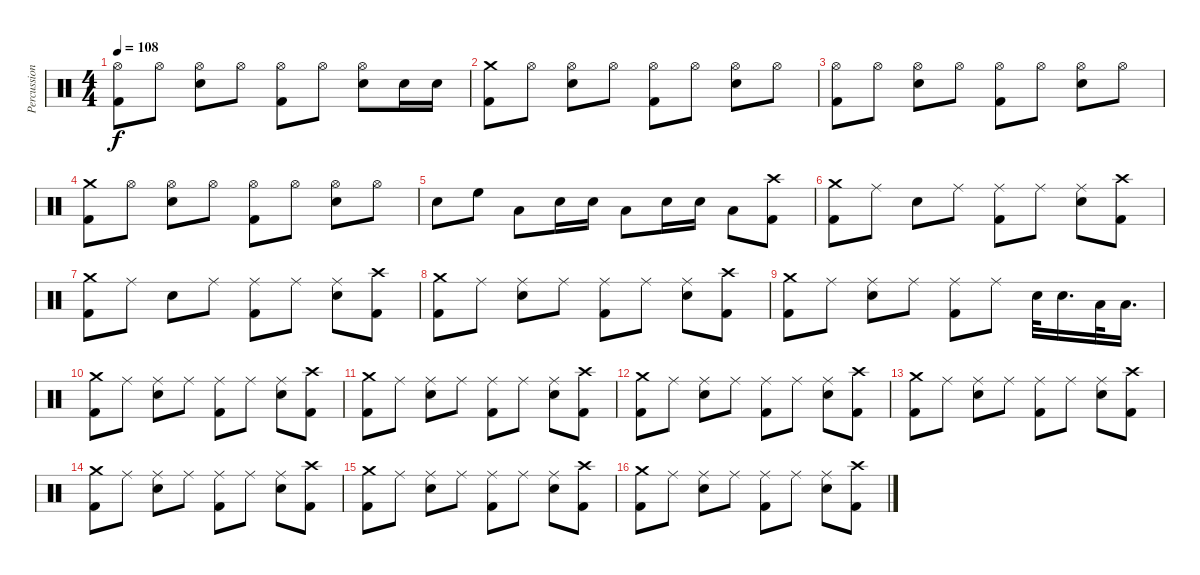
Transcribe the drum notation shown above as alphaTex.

\track ("Percussion" "Percussion") {instrument percussion}
\staff {score}
\articulation defaults
\ts (4 4)
\tempo 108
\clef neutral
\ks c
("Hi-Hat (open)" "Kick (hit) 2").8{dy f} "Hi-Hat (open)".8 ("Hi-Hat (open)" "Snare (hit) 2").8 "Hi-Hat (open)".8 ("Hi-Hat (open)" "Kick (hit) 2").8 "Hi-Hat (open)".8 ("Hi-Hat (open)" "Snare (hit) 2").8 "Snare (hit) 2".16 "Snare (hit) 2".16 |
("Crash medium (hit)" "Kick (hit) 2").8 "Hi-Hat (open)".8 ("Hi-Hat (open)" "Snare (hit) 2").8 "Hi-Hat (open)".8 ("Hi-Hat (open)" "Kick (hit) 2").8 "Hi-Hat (open)".8 ("Hi-Hat (open)" "Snare (hit) 2").8 "Hi-Hat (open)".8 |
("Hi-Hat (open)" "Kick (hit) 2").8 "Hi-Hat (open)".8 ("Hi-Hat (open)" "Snare (hit) 2").8 "Hi-Hat (open)".8 ("Hi-Hat (open)" "Kick (hit) 2").8 "Hi-Hat (open)".8 ("Hi-Hat (open)" "Snare (hit) 2").8 "Hi-Hat (open)".8 |
("Crash medium (hit)" "Kick (hit) 2").8 "Hi-Hat (open)".8 ("Hi-Hat (open)" "Snare (hit) 2").8 "Hi-Hat (open)".8 ("Hi-Hat (open)" "Kick (hit) 2").8 "Hi-Hat (open)".8 ("Hi-Hat (open)" "Snare (hit) 2").8 "Hi-Hat (open)".8 |
"Snare (hit) 2".8 "High Floor Tom (hit)".8 "Low Tom (hit)".8 "Snare (hit) 2".16 "Snare (hit) 2".16 "Low Tom (hit)".8 "Snare (hit) 2".16 "Snare (hit) 2".16 "Low Tom (hit)".8 ("Kick (hit) 2" "Crash high (hit)").8 |
("Crash medium (hit)" "Kick (hit) 2").8 "Ride (middle)".8 "Snare (hit) 2".8 "Ride (middle)".8 ("Kick (hit) 2" "Ride (middle)").8 "Ride (middle)".8 ("Ride (middle)" "Snare (hit) 2").8 ("Kick (hit) 2" "Crash high (hit)").8 |
("Crash medium (hit)" "Kick (hit) 2").8 "Ride (middle)".8 "Snare (hit) 2".8 "Ride (middle)".8 ("Kick (hit) 2" "Ride (middle)").8 "Ride (middle)".8 ("Ride (middle)" "Snare (hit) 2").8 ("Kick (hit) 2" "Crash high (hit)").8 |
("Crash medium (hit)" "Kick (hit) 2").8 "Ride (middle)".8 ("Ride (middle)" "Snare (hit) 2").8 "Ride (middle)".8 ("Ride (middle)" "Kick (hit) 2").8 "Ride (middle)".8 ("Ride (middle)" "Snare (hit) 2").8 ("Crash high (hit)" "Kick (hit) 2").8 |
("Crash medium (hit)" "Kick (hit) 2").8 "Ride (middle)".8 ("Ride (middle)" "Snare (hit) 2").8 "Ride (middle)".8 ("Ride (middle)" "Kick (hit) 2").8 "Ride (middle)".8 "Snare (hit) 2".32 "Snare (hit) 2".16{d} "Low Tom (hit)".32 "Low Tom (hit)".16{d} |
("Crash medium (hit)" "Kick (hit) 2").8 "Ride (middle)".8 ("Ride (middle)" "Snare (hit) 2").8 "Ride (middle)".8 ("Ride (middle)" "Kick (hit) 2").8 "Ride (middle)".8 ("Ride (middle)" "Snare (hit) 2").8 ("Crash high (hit)" "Kick (hit) 2").8 |
("Crash medium (hit)" "Kick (hit) 2").8 "Ride (middle)".8 ("Ride (middle)" "Snare (hit) 2").8 "Ride (middle)".8 ("Ride (middle)" "Kick (hit) 2").8 "Ride (middle)".8 ("Ride (middle)" "Snare (hit) 2").8 ("Crash high (hit)" "Kick (hit) 2").8 |
("Crash medium (hit)" "Kick (hit) 2").8 "Ride (middle)".8 ("Ride (middle)" "Snare (hit) 2").8 "Ride (middle)".8 ("Ride (middle)" "Kick (hit) 2").8 "Ride (middle)".8 ("Ride (middle)" "Snare (hit) 2").8 ("Crash high (hit)" "Kick (hit) 2").8 |
("Crash medium (hit)" "Kick (hit) 2").8 "Ride (middle)".8 ("Ride (middle)" "Snare (hit) 2").8 "Ride (middle)".8 ("Ride (middle)" "Kick (hit) 2").8 "Ride (middle)".8 ("Ride (middle)" "Snare (hit) 2").8 ("Crash high (hit)" "Kick (hit) 2").8 |
("Crash medium (hit)" "Kick (hit) 2").8 "Ride (middle)".8 ("Ride (middle)" "Snare (hit) 2").8 "Ride (middle)".8 ("Ride (middle)" "Kick (hit) 2").8 "Ride (middle)".8 ("Ride (middle)" "Snare (hit) 2").8 ("Crash high (hit)" "Kick (hit) 2").8 |
("Crash medium (hit)" "Kick (hit) 2").8 "Ride (middle)".8 ("Ride (middle)" "Snare (hit) 2").8 "Ride (middle)".8 ("Ride (middle)" "Kick (hit) 2").8 "Ride (middle)".8 ("Ride (middle)" "Snare (hit) 2").8 ("Crash high (hit)" "Kick (hit) 2").8 |
("Crash medium (hit)" "Kick (hit) 2").8 "Ride (middle)".8 ("Ride (middle)" "Snare (hit) 2").8 "Ride (middle)".8 ("Ride (middle)" "Kick (hit) 2").8 "Ride (middle)".8 ("Ride (middle)" "Snare (hit) 2").8 ("Crash high (hit)" "Kick (hit) 2").8
